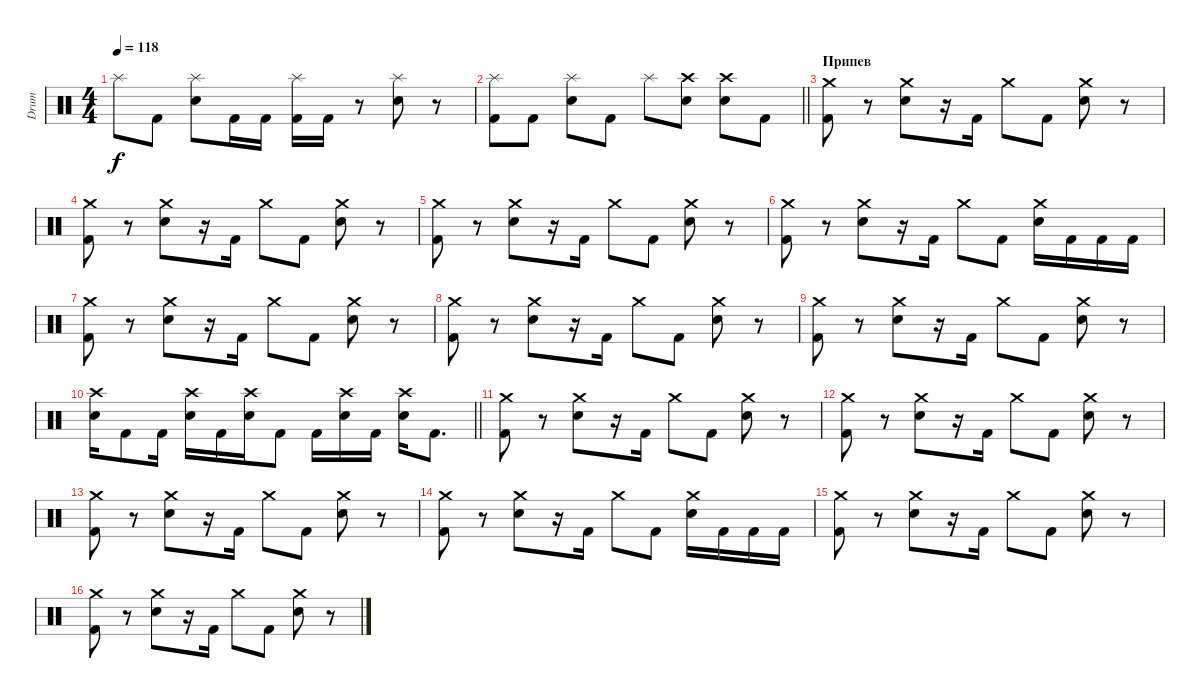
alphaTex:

\track ("Drum" "Drum") {instrument percussion}
\staff {score}
\articulation defaults
\ts (4 4)
\tempo 118
\clef neutral
\ks c "Splash (hit)".8{dy f} "Kick (hit) 2".8
("Splash (hit)" "Snare (hit) 2").8 "Kick (hit) 2".16 "Kick (hit) 2".16 ("Splash (hit)" "Kick (hit) 2").16 "Kick (hit) 2".16 r.8 ("Splash (hit)" "Snare (hit) 2").8 r.8 |
\barLineRight lightlight
("Splash (hit)" "Kick (hit) 2").8 "Kick (hit) 2".8 ("Splash (hit)" "Snare (hit) 2").8 "Kick (hit) 2".8 "Splash (hit)".8 ("Crash high (hit)" "Snare (hit) 2").8 ("Crash high (hit)" "Snare (hit) 2").8 "Kick (hit) 2".8 |
\section ("" "Припев")
("Crash medium (hit)" "Kick (hit) 2").8 r.8 ("Crash medium (hit)" "Snare (hit) 2").8 r.16 "Kick (hit) 2".16 "Crash medium (hit)".8 "Kick (hit) 2".8 ("Crash medium (hit)" "Snare (hit) 2").8 r.8 |
("Crash medium (hit)" "Kick (hit) 2").8 r.8 ("Crash medium (hit)" "Snare (hit) 2").8 r.16 "Kick (hit) 2".16 "Crash medium (hit)".8 "Kick (hit) 2".8 ("Crash medium (hit)" "Snare (hit) 2").8 r.8 |
("Crash medium (hit)" "Kick (hit) 2").8 r.8 ("Crash medium (hit)" "Snare (hit) 2").8 r.16 "Kick (hit) 2".16 "Crash medium (hit)".8 "Kick (hit) 2".8 ("Crash medium (hit)" "Snare (hit) 2").8 r.8 |
("Crash medium (hit)" "Kick (hit) 2").8 r.8 ("Crash medium (hit)" "Snare (hit) 2").8 r.16 "Kick (hit) 2".16 "Crash medium (hit)".8 "Kick (hit) 2".8 ("Crash medium (hit)" "Snare (hit) 2").16 "Kick (hit) 2".16 "Kick (hit) 2".16 "Kick (hit) 2".16 |
("Crash medium (hit)" "Kick (hit) 2").8 r.8 ("Crash medium (hit)" "Snare (hit) 2").8 r.16 "Kick (hit) 2".16 "Crash medium (hit)".8 "Kick (hit) 2".8 ("Crash medium (hit)" "Snare (hit) 2").8 r.8 |
("Crash medium (hit)" "Kick (hit) 2").8 r.8 ("Crash medium (hit)" "Snare (hit) 2").8 r.16 "Kick (hit) 2".16 "Crash medium (hit)".8 "Kick (hit) 2".8 ("Crash medium (hit)" "Snare (hit) 2").8 r.8 |
("Crash medium (hit)" "Kick (hit) 2").8 r.8 ("Crash medium (hit)" "Snare (hit) 2").8 r.16 "Kick (hit) 2".16 "Crash medium (hit)".8 "Kick (hit) 2".8 ("Crash medium (hit)" "Snare (hit) 2").8 r.8 |
\barLineRight lightlight
("Crash high (hit)" "Snare (hit) 2").16 "Kick (hit) 2".8 "Kick (hit) 2".16 ("Crash high (hit)" "Snare (hit) 2").16 "Kick (hit) 2".16 ("Crash high (hit)" "Snare (hit) 2").16 "Kick (hit) 2".8 "Kick (hit) 2".16 ("Crash high (hit)" "Snare (hit) 2").16 "Kick (hit) 2".16 ("Crash high (hit)" "Snare (hit) 2").16 "Kick (hit) 2".8{d} |
\section ("" "")
("Crash medium (hit)" "Kick (hit) 2").8 r.8 ("Crash medium (hit)" "Snare (hit) 2").8 r.16 "Kick (hit) 2".16 "Crash medium (hit)".8 "Kick (hit) 2".8 ("Crash medium (hit)" "Snare (hit) 2").8 r.8 |
("Crash medium (hit)" "Kick (hit) 2").8 r.8 ("Crash medium (hit)" "Snare (hit) 2").8 r.16 "Kick (hit) 2".16 "Crash medium (hit)".8 "Kick (hit) 2".8 ("Crash medium (hit)" "Snare (hit) 2").8 r.8 |
("Crash medium (hit)" "Kick (hit) 2").8 r.8 ("Crash medium (hit)" "Snare (hit) 2").8 r.16 "Kick (hit) 2".16 "Crash medium (hit)".8 "Kick (hit) 2".8 ("Crash medium (hit)" "Snare (hit) 2").8 r.8 |
("Crash medium (hit)" "Kick (hit) 2").8 r.8 ("Crash medium (hit)" "Snare (hit) 2").8 r.16 "Kick (hit) 2".16 "Crash medium (hit)".8 "Kick (hit) 2".8 ("Crash medium (hit)" "Snare (hit) 2").16 "Kick (hit) 2".16 "Kick (hit) 2".16 "Kick (hit) 2".16 |
("Crash medium (hit)" "Kick (hit) 2").8 r.8 ("Crash medium (hit)" "Snare (hit) 2").8 r.16 "Kick (hit) 2".16 "Crash medium (hit)".8 "Kick (hit) 2".8 ("Crash medium (hit)" "Snare (hit) 2").8 r.8 |
("Crash medium (hit)" "Kick (hit) 2").8 r.8 ("Crash medium (hit)" "Snare (hit) 2").8 r.16 "Kick (hit) 2".16 "Crash medium (hit)".8 "Kick (hit) 2".8 ("Crash medium (hit)" "Snare (hit) 2").8 r.8
